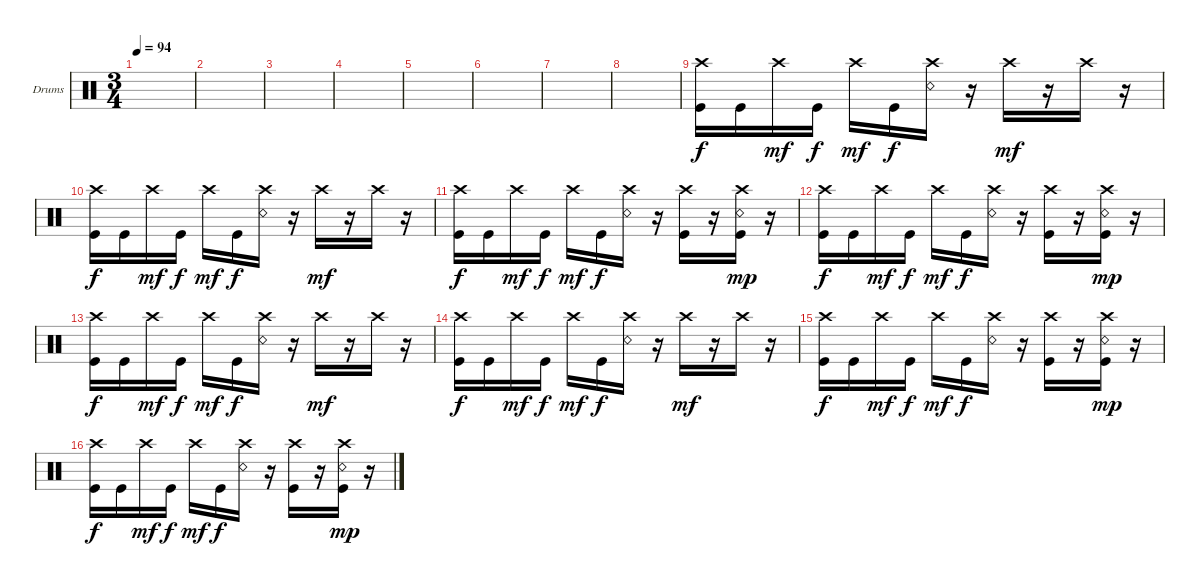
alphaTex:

\bracketExtendMode groupsimilarinstruments
\firstSystemTrackNameOrientation horizontal
\otherSystemsTrackNameOrientation horizontal
\track ("Drumkit" "Drums") {instrument percussion}
\staff {score}
\articulation defaults
\ts (3 4)
\tempo 94
\clef neutral
\ks c
|
|
|
|
|
|
|
|
("Kick (hit)" "Crash high (hit)").16 "Kick (hit)".16 "Crash high (hit)".16{dy mf} "Kick (hit)".16{dy f} "Crash high (hit)".16{dy mf} "Kick (hit)".16{dy f} ("Snare (rim shot)" "Crash high (hit)").16 r.16 "Crash high (hit)".16{dy mf} r.16 "Crash high (hit)".16 r.16 |
("Kick (hit)" "Crash high (hit)").16{dy f} "Kick (hit)".16 "Crash high (hit)".16{dy mf} "Kick (hit)".16{dy f} "Crash high (hit)".16{dy mf} "Kick (hit)".16{dy f} ("Snare (rim shot)" "Crash high (hit)").16 r.16 "Crash high (hit)".16{dy mf} r.16 "Crash high (hit)".16 r.16 |
("Kick (hit)" "Crash high (hit)").16{dy f} "Kick (hit)".16 "Crash high (hit)".16{dy mf} "Kick (hit)".16{dy f} "Crash high (hit)".16{dy mf} "Kick (hit)".16{dy f} ("Snare (rim shot)" "Crash high (hit)").16 r.16 ("Kick (hit)" "Crash high (hit)").16 r.16 ("Kick (hit)" "Snare (rim shot)" "Crash high (hit)").16{dy mp} r.16 |
("Kick (hit)" "Crash high (hit)").16{dy f} "Kick (hit)".16 "Crash high (hit)".16{dy mf} "Kick (hit)".16{dy f} "Crash high (hit)".16{dy mf} "Kick (hit)".16{dy f} ("Snare (rim shot)" "Crash high (hit)").16 r.16 ("Kick (hit)" "Crash high (hit)").16 r.16 ("Kick (hit)" "Snare (rim shot)" "Crash high (hit)").16{dy mp} r.16 |
("Kick (hit)" "Crash high (hit)").16{dy f} "Kick (hit)".16 "Crash high (hit)".16{dy mf} "Kick (hit)".16{dy f} "Crash high (hit)".16{dy mf} "Kick (hit)".16{dy f} ("Snare (rim shot)" "Crash high (hit)").16 r.16 "Crash high (hit)".16{dy mf} r.16 "Crash high (hit)".16 r.16 |
("Kick (hit)" "Crash high (hit)").16{dy f} "Kick (hit)".16 "Crash high (hit)".16{dy mf} "Kick (hit)".16{dy f} "Crash high (hit)".16{dy mf} "Kick (hit)".16{dy f} ("Snare (rim shot)" "Crash high (hit)").16 r.16 "Crash high (hit)".16{dy mf} r.16 "Crash high (hit)".16 r.16 |
("Kick (hit)" "Crash high (hit)").16{dy f} "Kick (hit)".16 "Crash high (hit)".16{dy mf} "Kick (hit)".16{dy f} "Crash high (hit)".16{dy mf} "Kick (hit)".16{dy f} ("Snare (rim shot)" "Crash high (hit)").16 r.16 ("Kick (hit)" "Crash high (hit)").16 r.16 ("Kick (hit)" "Snare (rim shot)" "Crash high (hit)").16{dy mp} r.16 |
("Kick (hit)" "Crash high (hit)").16{dy f} "Kick (hit)".16 "Crash high (hit)".16{dy mf} "Kick (hit)".16{dy f} "Crash high (hit)".16{dy mf} "Kick (hit)".16{dy f} ("Snare (rim shot)" "Crash high (hit)").16 r.16 ("Kick (hit)" "Crash high (hit)").16 r.16 ("Kick (hit)" "Snare (rim shot)" "Crash high (hit)").16{dy mp} r.16
